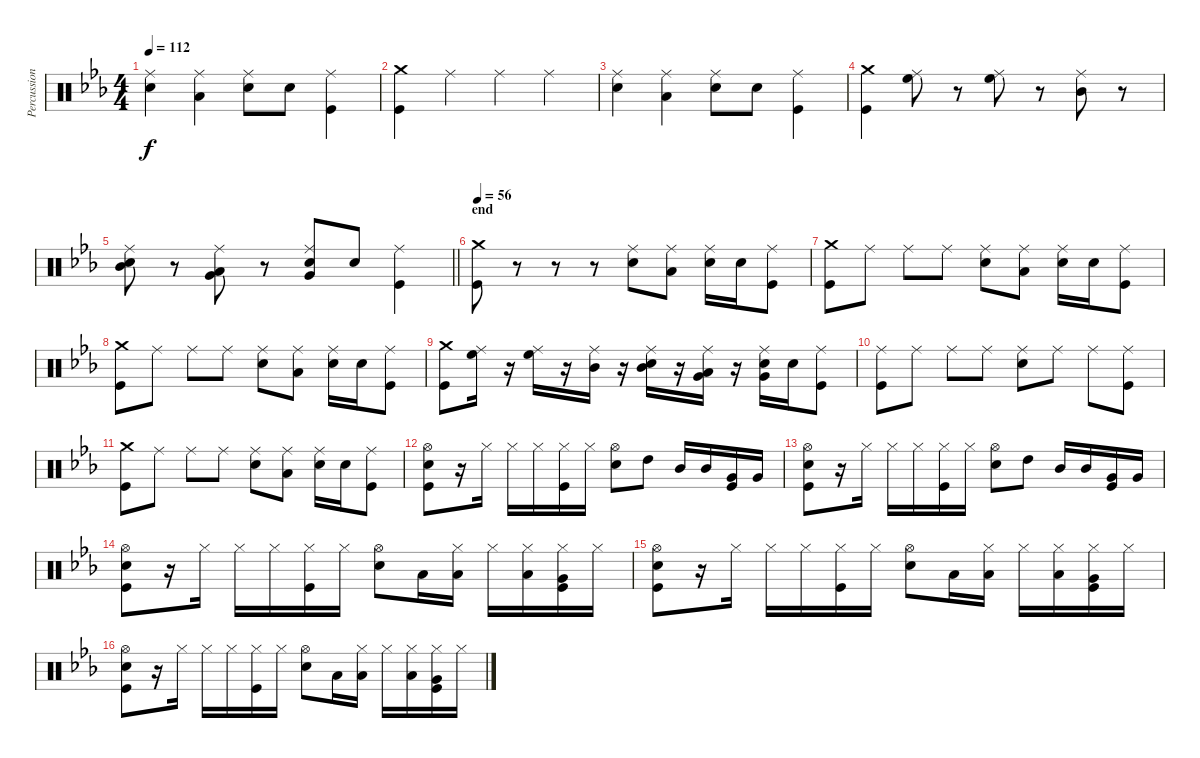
\track ("Percussion" "Percussion") {instrument percussion}
\staff {score}
\articulation defaults
\ts (4 4)
\tempo 112
\clef neutral
\ks cminor
("Snare (hit) 2" "Ride (middle)").4{dy f} ("Low Floor Tom (hit)" "Ride (middle)").4 ("Snare (hit) 2" "Ride (middle)").8 "Snare (hit) 2".8 ("Kick (hit)" "Ride (middle)").4 |
("Crash medium (hit)" "Kick (hit)").4 "Ride (middle)".4 "Ride (middle)".4 "Ride (middle)".4 |
("Snare (hit) 2" "Ride (middle)").4 ("Low Floor Tom (hit)" "Ride (middle)").4 ("Snare (hit) 2" "Ride (middle)").8 "Snare (hit) 2".8 ("Kick (hit)" "Ride (middle)").4 |
("Crash medium (hit)" "Kick (hit)").4 ("High Floor Tom (hit)" "Ride (middle)").8 r.8 ("High Floor Tom (hit)" "Ride (middle)").8 r.8 ("Mid Tom (hit)" "Ride (middle)").8 r.8 |
\barLineRight lightlight
("Mid Tom (hit)" "Snare (hit) 2" "Ride (middle)").8 r.8 ("Very Low Tom (hit)" "Low Floor Tom (hit)" "Ride (middle)").8 r.8 ("Very Low Tom (hit)" "Snare (hit) 2" "Ride (middle)").8 "Snare (hit) 2".8 ("Kick (hit)" "Ride (middle)").4 |
\section ("" "end")
\tempo 56
("Crash medium (hit)" "Kick (hit)").8 r.8 r.8 r.8 ("Snare (hit) 2" "Ride (middle)").8 ("Low Floor Tom (hit)" "Ride (middle)").8 ("Snare (hit) 2" "Ride (middle)").16 "Snare (hit) 2".16 ("Kick (hit)" "Ride (middle)").8 |
("Crash medium (hit)" "Kick (hit)").8 "Ride (middle)".8 "Ride (middle)".8 "Ride (middle)".8 ("Snare (hit) 2" "Ride (middle)").8 ("Low Floor Tom (hit)" "Ride (middle)").8 ("Snare (hit) 2" "Ride (middle)").16 "Snare (hit) 2".16 ("Kick (hit)" "Ride (middle)").8 |
("Crash medium (hit)" "Kick (hit)").8 "Ride (middle)".8 "Ride (middle)".8 "Ride (middle)".8 ("Snare (hit) 2" "Ride (middle)").8 ("Low Floor Tom (hit)" "Ride (middle)").8 ("Snare (hit) 2" "Ride (middle)").16 "Snare (hit) 2".16 ("Kick (hit)" "Ride (middle)").8 |
("Crash medium (hit)" "Kick (hit)").8 ("High Floor Tom (hit)" "Ride (middle)").16 r.16 ("High Floor Tom (hit)" "Ride (middle)").16 r.16 ("Mid Tom (hit)" "Ride (middle)").16 r.16 ("Mid Tom (hit)" "Snare (hit) 2" "Ride (middle)").16 r.16 ("Very Low Tom (hit)" "Low Floor Tom (hit)" "Ride (middle)").16 r.16 ("Very Low Tom (hit)" "Snare (hit) 2" "Ride (middle)").16 "Snare (hit) 2".16 ("Kick (hit)" "Ride (middle)").8 |
\ks eb
("Ride (middle)" "Kick (hit)").8 "Ride (middle)".8 "Ride (middle)".8 "Ride (middle)".8 ("Snare (hit) 2" "Ride (middle)").8 "Ride (middle)".8 "Ride (middle)".8 ("Kick (hit)" "Ride (middle)").8 |
("Crash medium (hit)" "Kick (hit)").8 "Ride (middle)".8 "Ride (middle)".8 "Ride (middle)".8 ("Snare (hit) 2" "Ride (middle)").8 ("Low Floor Tom (hit)" "Ride (middle)").8 ("Snare (hit) 2" "Ride (middle)").16 "Snare (hit) 2".16 ("Kick (hit)" "Ride (middle)").8 |
("Hi-Hat (open)" "Kick (hit)" "Snare (hit) 2").8 r.16 "Hi-Hat (closed)".16 "Hi-Hat (closed)".16 "Hi-Hat (closed)".16 ("Kick (hit)" "Hi-Hat (closed)").16 "Hi-Hat (closed)".16 ("Snare (hit) 2" "Hi-Hat (open)").8 "High Tom (hit)".8 "Mid Tom (hit)".16 "Mid Tom (hit)".16 ("Very Low Tom (hit)" "Kick (hit)").16 "Very Low Tom (hit)".16 |
("Hi-Hat (open)" "Kick (hit)" "Snare (hit) 2").8 r.16 "Hi-Hat (closed)".16 "Hi-Hat (closed)".16 "Hi-Hat (closed)".16 ("Kick (hit)" "Hi-Hat (closed)").16 "Hi-Hat (closed)".16 ("Snare (hit) 2" "Hi-Hat (open)").8 "High Tom (hit)".8 "Mid Tom (hit)".16 "Mid Tom (hit)".16 ("Very Low Tom (hit)" "Kick (hit)").16 "Very Low Tom (hit)".16 |
("Hi-Hat (open)" "Kick (hit)" "Snare (hit) 2").8 r.16 "Hi-Hat (closed)".16 "Hi-Hat (closed)".16 "Hi-Hat (closed)".16 ("Kick (hit)" "Hi-Hat (closed)").16 "Hi-Hat (closed)".16 ("Snare (hit) 2" "Hi-Hat (open)").8 "Low Tom (hit)".16 ("Low Tom (hit)" "Hi-Hat (closed)").16 "Hi-Hat (closed)".16 ("Low Tom (hit)" "Hi-Hat (closed)").16 ("Very Low Tom (hit)" "Kick (hit)" "Hi-Hat (closed)").16 "Hi-Hat (closed)".16 |
("Hi-Hat (open)" "Kick (hit)" "Snare (hit) 2").8 r.16 "Hi-Hat (closed)".16 "Hi-Hat (closed)".16 "Hi-Hat (closed)".16 ("Kick (hit)" "Hi-Hat (closed)").16 "Hi-Hat (closed)".16 ("Snare (hit) 2" "Hi-Hat (open)").8 "Low Tom (hit)".16 ("Low Tom (hit)" "Hi-Hat (closed)").16 "Hi-Hat (closed)".16 ("Low Tom (hit)" "Hi-Hat (closed)").16 ("Very Low Tom (hit)" "Kick (hit)" "Hi-Hat (closed)").16 "Hi-Hat (closed)".16 |
("Hi-Hat (open)" "Kick (hit)" "Snare (hit) 2").8 r.16 "Hi-Hat (closed)".16 "Hi-Hat (closed)".16 "Hi-Hat (closed)".16 ("Kick (hit)" "Hi-Hat (closed)").16 "Hi-Hat (closed)".16 ("Snare (hit) 2" "Hi-Hat (open)").8 "Low Tom (hit)".16 ("Low Tom (hit)" "Hi-Hat (closed)").16 "Hi-Hat (closed)".16 ("Low Tom (hit)" "Hi-Hat (closed)").16 ("Very Low Tom (hit)" "Kick (hit)" "Hi-Hat (closed)").16 "Hi-Hat (closed)".16
